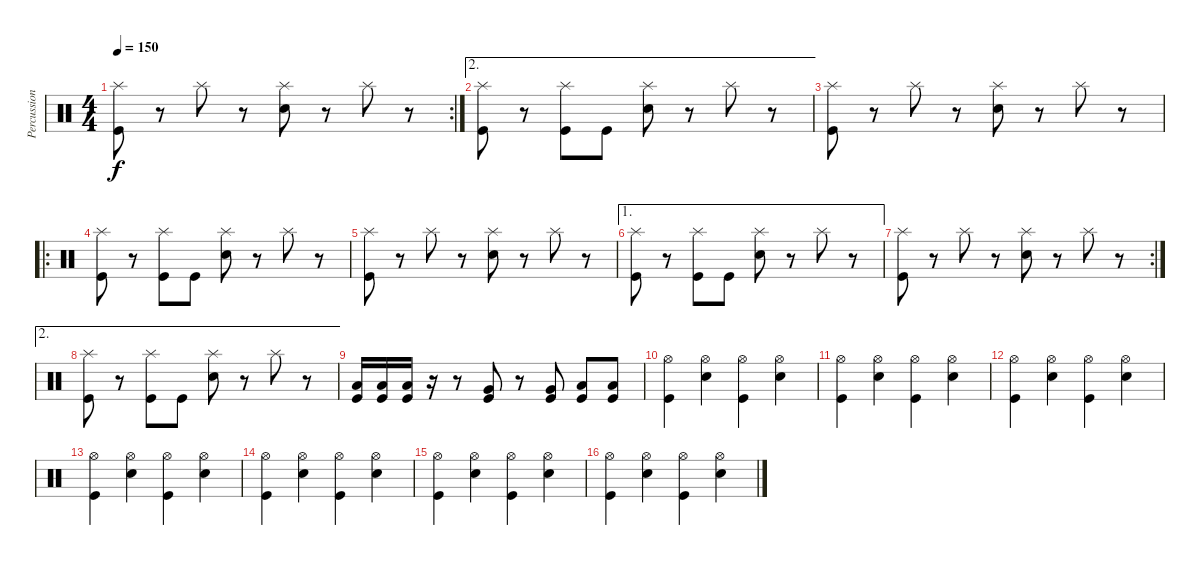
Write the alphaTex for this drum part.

\track ("Percussions" "Percussion") {instrument percussion}
\staff {score}
\articulation defaults
\rc 2
\ts (4 4)
\tempo 150
\clef neutral
\ks c
("Kick (hit)" "Splash (hit)").8{dy f} r.8 "Splash (hit)".8 r.8 ("Electric Snare (hit)" "Splash (hit)").8 r.8 "Splash (hit)".8 r.8 |
\ae 2
("Kick (hit)" "Splash (hit)").8 r.8 ("Kick (hit)" "Splash (hit)").8 "Kick (hit)".8 ("Electric Snare (hit)" "Splash (hit)").8 r.8 "Splash (hit)".8 r.8 |
("Kick (hit)" "Splash (hit)").8 r.8 "Splash (hit)".8 r.8 ("Electric Snare (hit)" "Splash (hit)").8 r.8 "Splash (hit)".8 r.8 |
\ro
("Kick (hit)" "Splash (hit)").8 r.8 ("Kick (hit)" "Splash (hit)").8 "Kick (hit)".8 ("Electric Snare (hit)" "Splash (hit)").8 r.8 "Splash (hit)".8 r.8 |
("Kick (hit)" "Splash (hit)").8 r.8 "Splash (hit)".8 r.8 ("Electric Snare (hit)" "Splash (hit)").8 r.8 "Splash (hit)".8 r.8 |
\ae 1
("Kick (hit)" "Splash (hit)").8 r.8 ("Kick (hit)" "Splash (hit)").8 "Kick (hit)".8 ("Electric Snare (hit)" "Splash (hit)").8 r.8 "Splash (hit)".8 r.8 |
\rc 2
("Kick (hit)" "Splash (hit)").8 r.8 "Splash (hit)".8 r.8 ("Electric Snare (hit)" "Splash (hit)").8 r.8 "Splash (hit)".8 r.8 |
\ae 2
("Kick (hit)" "Splash (hit)").8 r.8 ("Kick (hit)" "Splash (hit)").8 "Kick (hit)".8 ("Electric Snare (hit)" "Splash (hit)").8 r.8 "Splash (hit)".8 r.8 |
("Kick (hit)" "Low Tom (hit)").16 ("Kick (hit)" "Low Tom (hit)").16 ("Kick (hit)" "Low Tom (hit)").16 r.16 r.8 ("Kick (hit)" "Very Low Tom (hit)").8 r.8 ("Kick (hit)" "Very Low Tom (hit)").8 ("Kick (hit)" "Low Floor Tom (hit)").8 ("Kick (hit)" "Low Floor Tom (hit)").8 |
("Kick (hit)" "Hi-Hat (open)").4 ("Electric Snare (hit)" "Hi-Hat (open)").4 ("Kick (hit)" "Hi-Hat (open)").4 ("Electric Snare (hit)" "Hi-Hat (open)").4 |
("Kick (hit)" "Hi-Hat (open)").4 ("Electric Snare (hit)" "Hi-Hat (open)").4 ("Kick (hit)" "Hi-Hat (open)").4 ("Electric Snare (hit)" "Hi-Hat (open)").4 |
("Kick (hit)" "Hi-Hat (open)").4 ("Electric Snare (hit)" "Hi-Hat (open)").4 ("Kick (hit)" "Hi-Hat (open)").4 ("Electric Snare (hit)" "Hi-Hat (open)").4 |
("Kick (hit)" "Hi-Hat (open)").4 ("Electric Snare (hit)" "Hi-Hat (open)").4 ("Kick (hit)" "Hi-Hat (open)").4 ("Electric Snare (hit)" "Hi-Hat (open)").4 |
("Kick (hit)" "Hi-Hat (open)").4 ("Electric Snare (hit)" "Hi-Hat (open)").4 ("Kick (hit)" "Hi-Hat (open)").4 ("Electric Snare (hit)" "Hi-Hat (open)").4 |
("Kick (hit)" "Hi-Hat (open)").4 ("Electric Snare (hit)" "Hi-Hat (open)").4 ("Kick (hit)" "Hi-Hat (open)").4 ("Electric Snare (hit)" "Hi-Hat (open)").4 |
("Kick (hit)" "Hi-Hat (open)").4 ("Electric Snare (hit)" "Hi-Hat (open)").4 ("Kick (hit)" "Hi-Hat (open)").4 ("Electric Snare (hit)" "Hi-Hat (open)").4
